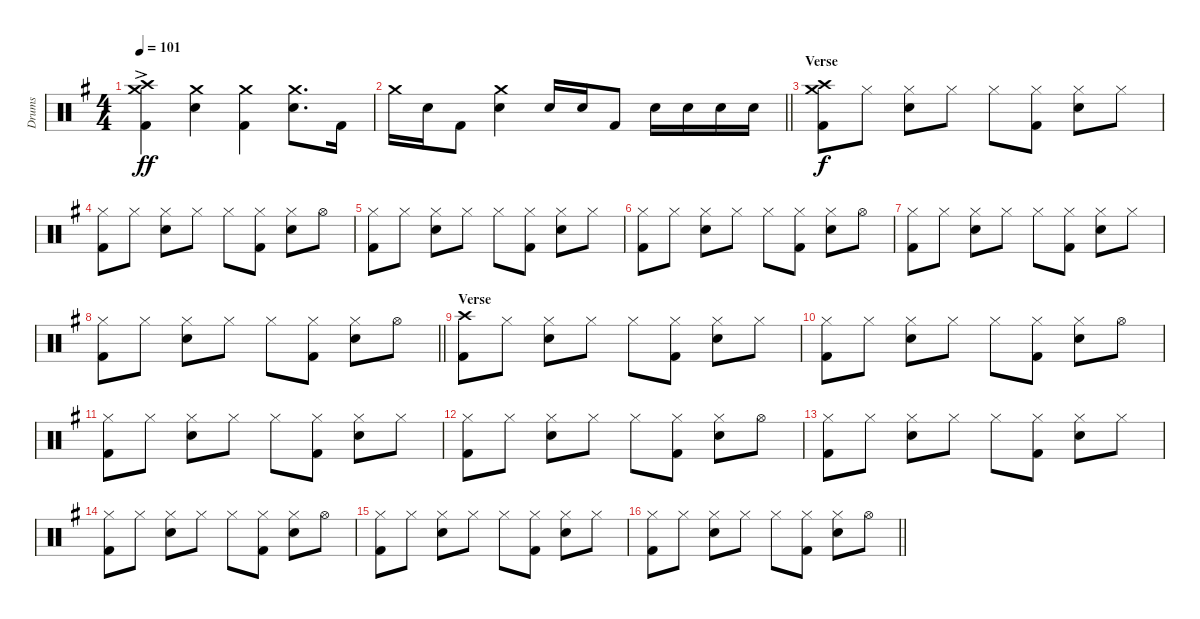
\track ("Drums" "Drums") {instrument percussion}
\staff {score}
\articulation defaults
\ts (4 4)
\tempo 101
\clef neutral
\ks eminor
("Crash medium (hit)"{ac} "Crash high (hit)"{ac} "Kick (hit) 2").4{dy ff} ("Crash medium (hit)" "Snare (hit) 2").4 ("Crash medium (hit)" "Kick (hit) 2").4 ("Crash medium (hit)" "Snare (hit) 2").8{d} "Kick (hit) 2".16 |
\barLineRight lightlight "Crash medium (hit)".16 "Snare (hit) 2".16 "Kick (hit) 2".8
("Crash medium (hit)" "Snare (hit) 2").4 "Snare (hit) 2".16 "Snare (hit) 2".16 "Kick (hit) 2".8 "Snare (hit) 2".16 "Snare (hit) 2".16 "Snare (hit) 2".16 "Snare (hit) 2".16 |
\section ("" "Verse")
("Crash high (hit)" "Crash medium (hit)" "Kick (hit) 2").8{dy f} "Hi-Hat (closed)".8 ("Hi-Hat (closed)" "Snare (hit) 2").8 "Hi-Hat (closed)".8 "Hi-Hat (closed)".8 ("Hi-Hat (closed)" "Kick (hit) 2").8 ("Hi-Hat (closed)" "Snare (hit) 2").8 "Hi-Hat (closed)".8 |
("Hi-Hat (closed)" "Kick (hit) 2").8 "Hi-Hat (closed)".8 ("Hi-Hat (closed)" "Snare (hit) 2").8 "Hi-Hat (closed)".8 "Hi-Hat (closed)".8 ("Hi-Hat (closed)" "Kick (hit) 2").8 ("Hi-Hat (closed)" "Snare (hit) 2").8 "Hi-Hat (open)".8 |
("Hi-Hat (closed)" "Kick (hit) 2").8 "Hi-Hat (closed)".8 ("Hi-Hat (closed)" "Snare (hit) 2").8 "Hi-Hat (closed)".8 "Hi-Hat (closed)".8 ("Hi-Hat (closed)" "Kick (hit) 2").8 ("Hi-Hat (closed)" "Snare (hit) 2").8 "Hi-Hat (closed)".8 |
("Hi-Hat (closed)" "Kick (hit) 2").8 "Hi-Hat (closed)".8 ("Hi-Hat (closed)" "Snare (hit) 2").8 "Hi-Hat (closed)".8 "Hi-Hat (closed)".8 ("Hi-Hat (closed)" "Kick (hit) 2").8 ("Hi-Hat (closed)" "Snare (hit) 2").8 "Hi-Hat (open)".8 |
("Hi-Hat (closed)" "Kick (hit) 2").8 "Hi-Hat (closed)".8 ("Hi-Hat (closed)" "Snare (hit) 2").8 "Hi-Hat (closed)".8 "Hi-Hat (closed)".8 ("Hi-Hat (closed)" "Kick (hit) 2").8 ("Hi-Hat (closed)" "Snare (hit) 2").8 "Hi-Hat (closed)".8 |
\barLineRight lightlight
("Hi-Hat (closed)" "Kick (hit) 2").8 "Hi-Hat (closed)".8 ("Hi-Hat (closed)" "Snare (hit) 2").8 "Hi-Hat (closed)".8 "Hi-Hat (closed)".8 ("Hi-Hat (closed)" "Kick (hit) 2").8 ("Hi-Hat (closed)" "Snare (hit) 2").8 "Hi-Hat (open)".8 |
\section ("" "Verse")
("Crash high (hit)" "Kick (hit) 2").8 "Hi-Hat (closed)".8 ("Hi-Hat (closed)" "Snare (hit) 2").8 "Hi-Hat (closed)".8 "Hi-Hat (closed)".8 ("Hi-Hat (closed)" "Kick (hit) 2").8 ("Hi-Hat (closed)" "Snare (hit) 2").8 "Hi-Hat (closed)".8 |
("Hi-Hat (closed)" "Kick (hit) 2").8 "Hi-Hat (closed)".8 ("Hi-Hat (closed)" "Snare (hit) 2").8 "Hi-Hat (closed)".8 "Hi-Hat (closed)".8 ("Hi-Hat (closed)" "Kick (hit) 2").8 ("Hi-Hat (closed)" "Snare (hit) 2").8 "Hi-Hat (open)".8 |
("Hi-Hat (closed)" "Kick (hit) 2").8 "Hi-Hat (closed)".8 ("Hi-Hat (closed)" "Snare (hit) 2").8 "Hi-Hat (closed)".8 "Hi-Hat (closed)".8 ("Hi-Hat (closed)" "Kick (hit) 2").8 ("Hi-Hat (closed)" "Snare (hit) 2").8 "Hi-Hat (closed)".8 |
("Hi-Hat (closed)" "Kick (hit) 2").8 "Hi-Hat (closed)".8 ("Hi-Hat (closed)" "Snare (hit) 2").8 "Hi-Hat (closed)".8 "Hi-Hat (closed)".8 ("Hi-Hat (closed)" "Kick (hit) 2").8 ("Hi-Hat (closed)" "Snare (hit) 2").8 "Hi-Hat (open)".8 |
("Hi-Hat (closed)" "Kick (hit) 2").8 "Hi-Hat (closed)".8 ("Hi-Hat (closed)" "Snare (hit) 2").8 "Hi-Hat (closed)".8 "Hi-Hat (closed)".8 ("Hi-Hat (closed)" "Kick (hit) 2").8 ("Hi-Hat (closed)" "Snare (hit) 2").8 "Hi-Hat (closed)".8 |
("Hi-Hat (closed)" "Kick (hit) 2").8 "Hi-Hat (closed)".8 ("Hi-Hat (closed)" "Snare (hit) 2").8 "Hi-Hat (closed)".8 "Hi-Hat (closed)".8 ("Hi-Hat (closed)" "Kick (hit) 2").8 ("Hi-Hat (closed)" "Snare (hit) 2").8 "Hi-Hat (open)".8 |
("Hi-Hat (closed)" "Kick (hit) 2").8 "Hi-Hat (closed)".8 ("Hi-Hat (closed)" "Snare (hit) 2").8 "Hi-Hat (closed)".8 "Hi-Hat (closed)".8 ("Hi-Hat (closed)" "Kick (hit) 2").8 ("Hi-Hat (closed)" "Snare (hit) 2").8 "Hi-Hat (closed)".8 |
\barLineRight lightlight
("Hi-Hat (closed)" "Kick (hit) 2").8 "Hi-Hat (closed)".8 ("Hi-Hat (closed)" "Snare (hit) 2").8 "Hi-Hat (closed)".8 "Hi-Hat (closed)".8 ("Hi-Hat (closed)" "Kick (hit) 2").8 ("Hi-Hat (closed)" "Snare (hit) 2").8 "Hi-Hat (open)".8
